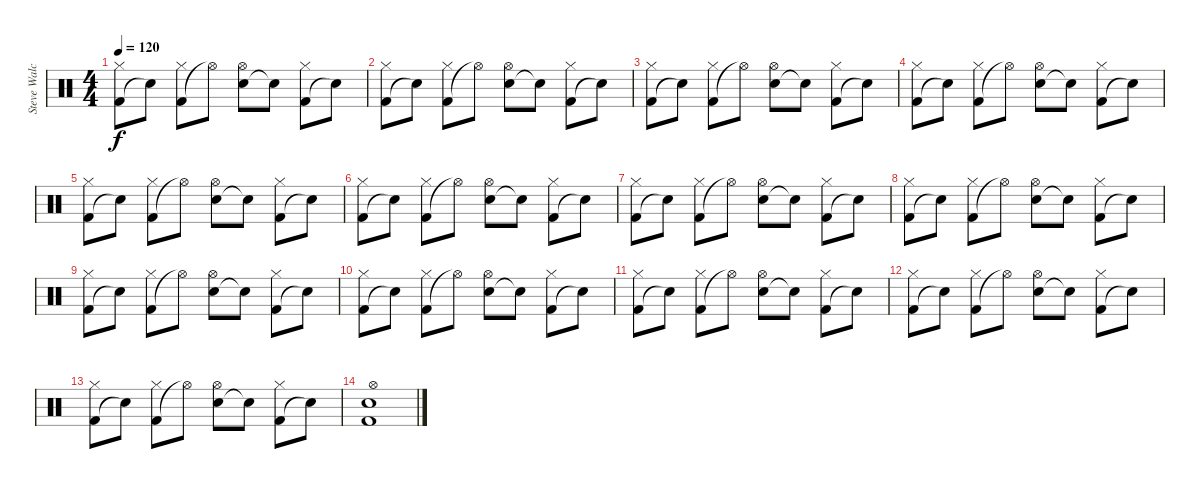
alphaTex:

\track ("Steve Walchoz" "Steve Walc") {instrument percussion}
\staff {score}
\articulation defaults
\ts (4 4)
\tempo 120
\clef neutral
\ks c
("Kick (hit) 2" "Hi-Hat (closed)").8{dy f} "Snare (hit)"{t}.8 ("Kick (hit) 2" "Hi-Hat (closed)").8 "Hi-Hat (open)"{t}.8 ("Electric Snare (hit)" "Hi-Hat (open)").8 "Snare (hit)"{t}.8 ("Kick (hit) 2" "Hi-Hat (closed)").8 "Snare (hit)"{t}.8 |
("Kick (hit) 2" "Hi-Hat (closed)").8 "Snare (hit)"{t}.8 ("Kick (hit) 2" "Hi-Hat (closed)").8 "Hi-Hat (open)"{t}.8 ("Electric Snare (hit)" "Hi-Hat (open)").8 "Snare (hit)"{t}.8 ("Kick (hit) 2" "Hi-Hat (closed)").8 "Snare (hit)"{t}.8 |
("Kick (hit) 2" "Hi-Hat (closed)").8 "Snare (hit)"{t}.8 ("Kick (hit) 2" "Hi-Hat (closed)").8 "Hi-Hat (open)"{t}.8 ("Electric Snare (hit)" "Hi-Hat (open)").8 "Snare (hit)"{t}.8 ("Kick (hit) 2" "Hi-Hat (closed)").8 "Snare (hit)"{t}.8 |
("Kick (hit) 2" "Hi-Hat (closed)").8 "Snare (hit)"{t}.8 ("Kick (hit) 2" "Hi-Hat (closed)").8 "Hi-Hat (open)"{t}.8 ("Electric Snare (hit)" "Hi-Hat (open)").8 "Snare (hit)"{t}.8 ("Kick (hit) 2" "Hi-Hat (closed)").8 "Snare (hit)"{t}.8 |
("Kick (hit) 2" "Hi-Hat (closed)").8 "Snare (hit)"{t}.8 ("Kick (hit) 2" "Hi-Hat (closed)").8 "Hi-Hat (open)"{t}.8 ("Electric Snare (hit)" "Hi-Hat (open)").8 "Snare (hit)"{t}.8 ("Kick (hit) 2" "Hi-Hat (closed)").8 "Snare (hit)"{t}.8 |
("Kick (hit) 2" "Hi-Hat (closed)").8 "Snare (hit)"{t}.8 ("Kick (hit) 2" "Hi-Hat (closed)").8 "Hi-Hat (open)"{t}.8 ("Electric Snare (hit)" "Hi-Hat (open)").8 "Snare (hit)"{t}.8 ("Kick (hit) 2" "Hi-Hat (closed)").8 "Snare (hit)"{t}.8 |
("Kick (hit) 2" "Hi-Hat (closed)").8 "Snare (hit)"{t}.8 ("Kick (hit) 2" "Hi-Hat (closed)").8 "Hi-Hat (open)"{t}.8 ("Electric Snare (hit)" "Hi-Hat (open)").8 "Snare (hit)"{t}.8 ("Kick (hit) 2" "Hi-Hat (closed)").8 "Snare (hit)"{t}.8 |
("Kick (hit) 2" "Hi-Hat (closed)").8 "Snare (hit)"{t}.8 ("Kick (hit) 2" "Hi-Hat (closed)").8 "Hi-Hat (open)"{t}.8 ("Electric Snare (hit)" "Hi-Hat (open)").8 "Snare (hit)"{t}.8 ("Kick (hit) 2" "Hi-Hat (closed)").8 "Snare (hit)"{t}.8 |
("Kick (hit) 2" "Hi-Hat (closed)").8 "Snare (hit)"{t}.8 ("Kick (hit) 2" "Hi-Hat (closed)").8 "Hi-Hat (open)"{t}.8 ("Electric Snare (hit)" "Hi-Hat (open)").8 "Snare (hit)"{t}.8 ("Kick (hit) 2" "Hi-Hat (closed)").8 "Snare (hit)"{t}.8 |
("Kick (hit) 2" "Hi-Hat (closed)").8 "Snare (hit)"{t}.8 ("Kick (hit) 2" "Hi-Hat (closed)").8 "Hi-Hat (open)"{t}.8 ("Electric Snare (hit)" "Hi-Hat (open)").8 "Snare (hit)"{t}.8 ("Kick (hit) 2" "Hi-Hat (closed)").8 "Snare (hit)"{t}.8 |
("Kick (hit) 2" "Hi-Hat (closed)").8 "Snare (hit)"{t}.8 ("Kick (hit) 2" "Hi-Hat (closed)").8 "Hi-Hat (open)"{t}.8 ("Electric Snare (hit)" "Hi-Hat (open)").8 "Snare (hit)"{t}.8 ("Kick (hit) 2" "Hi-Hat (closed)").8 "Snare (hit)"{t}.8 |
("Kick (hit) 2" "Hi-Hat (closed)").8 "Snare (hit)"{t}.8 ("Kick (hit) 2" "Hi-Hat (closed)").8 "Hi-Hat (open)"{t}.8 ("Electric Snare (hit)" "Hi-Hat (open)").8 "Snare (hit)"{t}.8 ("Kick (hit) 2" "Hi-Hat (closed)").8 "Snare (hit)"{t}.8 |
("Kick (hit) 2" "Hi-Hat (closed)").8 "Snare (hit)"{t}.8 ("Kick (hit) 2" "Hi-Hat (closed)").8 "Hi-Hat (open)"{t}.8 ("Electric Snare (hit)" "Hi-Hat (open)").8 "Snare (hit)"{t}.8 ("Kick (hit) 2" "Hi-Hat (closed)").8 "Snare (hit)"{t}.8 |
("Kick (hit) 2" "Electric Snare (hit)" "Hi-Hat (open)").1
